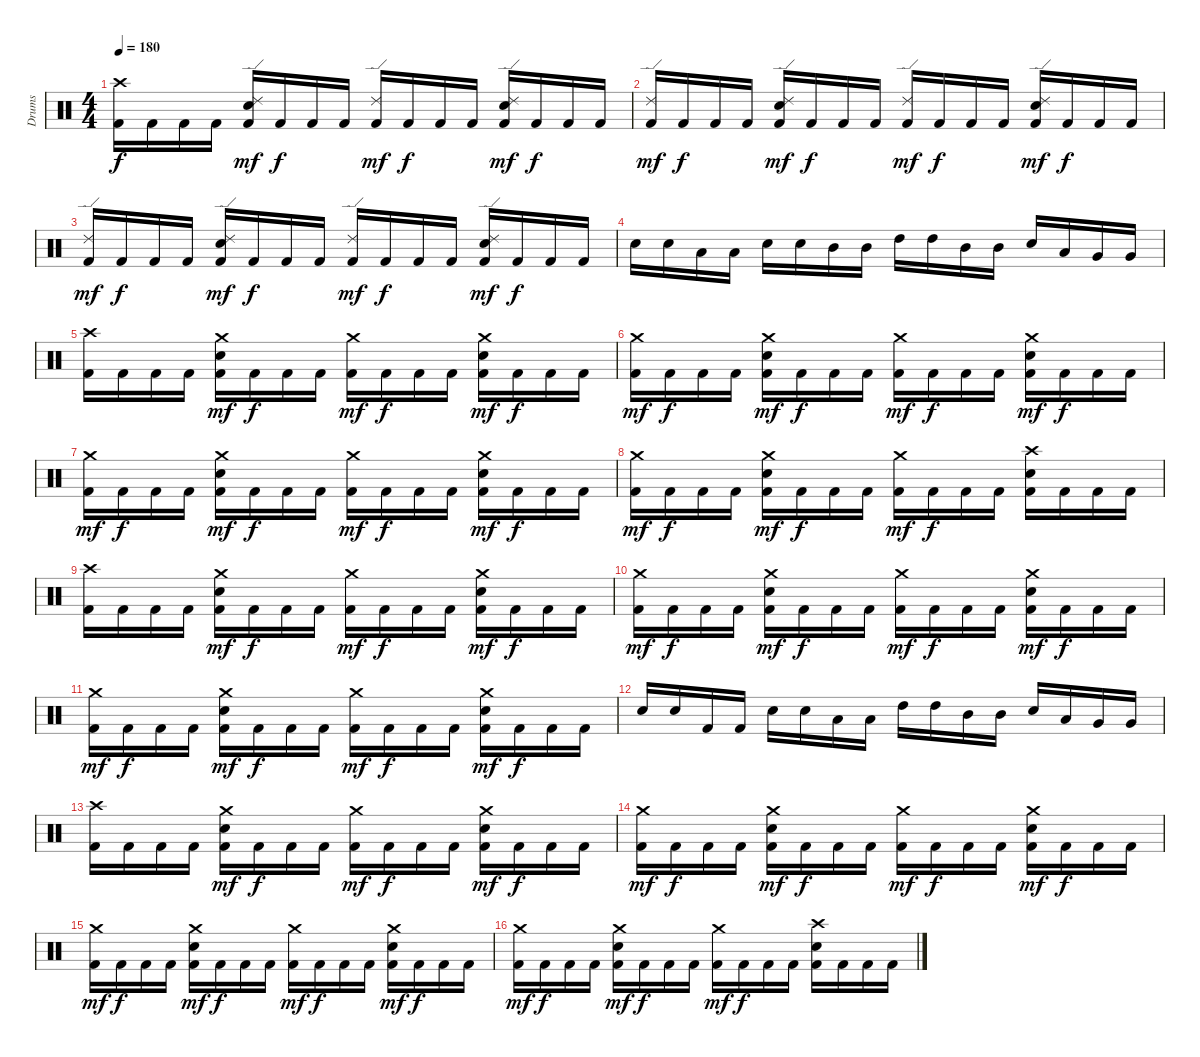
\track ("Drums" "Drums") {instrument percussion}
\staff {score}
\articulation defaults
\ts (4 4)
\tempo 180
\clef neutral
\ks c
("Crash high (hit)" "Kick (hit) 2").16{dy f} "Kick (hit) 2".16 "Kick (hit) 2".16 "Kick (hit) 2".16 ("Ride (edge) 2" "Snare (hit) 2" "Kick (hit) 2").16{dy mf} "Kick (hit) 2".16{dy f} "Kick (hit) 2".16 "Kick (hit) 2".16 ("Ride (edge) 2" "Kick (hit) 2").16{dy mf} "Kick (hit) 2".16{dy f} "Kick (hit) 2".16 "Kick (hit) 2".16 ("Ride (edge) 2" "Snare (hit) 2" "Kick (hit) 2").16{dy mf} "Kick (hit) 2".16{dy f} "Kick (hit) 2".16 "Kick (hit) 2".16 |
("Ride (edge) 2" "Kick (hit) 2").16{dy mf} "Kick (hit) 2".16{dy f} "Kick (hit) 2".16 "Kick (hit) 2".16 ("Ride (edge) 2" "Snare (hit) 2" "Kick (hit) 2").16{dy mf} "Kick (hit) 2".16{dy f} "Kick (hit) 2".16 "Kick (hit) 2".16 ("Ride (edge) 2" "Kick (hit) 2").16{dy mf} "Kick (hit) 2".16{dy f} "Kick (hit) 2".16 "Kick (hit) 2".16 ("Ride (edge) 2" "Snare (hit) 2" "Kick (hit) 2").16{dy mf} "Kick (hit) 2".16{dy f} "Kick (hit) 2".16 "Kick (hit) 2".16 |
("Ride (edge) 2" "Kick (hit) 2").16{dy mf} "Kick (hit) 2".16{dy f} "Kick (hit) 2".16 "Kick (hit) 2".16 ("Ride (edge) 2" "Snare (hit) 2" "Kick (hit) 2").16{dy mf} "Kick (hit) 2".16{dy f} "Kick (hit) 2".16 "Kick (hit) 2".16 ("Ride (edge) 2" "Kick (hit) 2").16{dy mf} "Kick (hit) 2".16{dy f} "Kick (hit) 2".16 "Kick (hit) 2".16 ("Ride (edge) 2" "Snare (hit) 2" "Kick (hit) 2").16{dy mf} "Kick (hit) 2".16{dy f} "Kick (hit) 2".16 "Kick (hit) 2".16 |
"Snare (hit) 2".16 "Snare (hit) 2".16 "Low Tom (hit)".16 "Low Tom (hit)".16 "Snare (hit) 2".16 "Snare (hit) 2".16 "Mid Tom (hit)".16 "Mid Tom (hit)".16 "High Tom (hit)".16 "High Tom (hit)".16 "Mid Tom (hit)".16 "Mid Tom (hit)".16 "Snare (hit) 2".16 "Low Tom (hit)".16 "Very Low Tom (hit)".16 "Very Low Tom (hit)".16 |
("Crash high (hit)" "Kick (hit) 2").16 "Kick (hit) 2".16 "Kick (hit) 2".16 "Kick (hit) 2".16 ("Crash medium (hit)" "Snare (hit) 2" "Kick (hit) 2").16{dy mf} "Kick (hit) 2".16{dy f} "Kick (hit) 2".16 "Kick (hit) 2".16 ("Crash medium (hit)" "Kick (hit) 2").16{dy mf} "Kick (hit) 2".16{dy f} "Kick (hit) 2".16 "Kick (hit) 2".16 ("Crash medium (hit)" "Snare (hit) 2" "Kick (hit) 2").16{dy mf} "Kick (hit) 2".16{dy f} "Kick (hit) 2".16 "Kick (hit) 2".16 |
("Crash medium (hit)" "Kick (hit) 2").16{dy mf} "Kick (hit) 2".16{dy f} "Kick (hit) 2".16 "Kick (hit) 2".16 ("Crash medium (hit)" "Snare (hit) 2" "Kick (hit) 2").16{dy mf} "Kick (hit) 2".16{dy f} "Kick (hit) 2".16 "Kick (hit) 2".16 ("Crash medium (hit)" "Kick (hit) 2").16{dy mf} "Kick (hit) 2".16{dy f} "Kick (hit) 2".16 "Kick (hit) 2".16 ("Crash medium (hit)" "Snare (hit) 2" "Kick (hit) 2").16{dy mf} "Kick (hit) 2".16{dy f} "Kick (hit) 2".16 "Kick (hit) 2".16 |
("Crash medium (hit)" "Kick (hit) 2").16{dy mf} "Kick (hit) 2".16{dy f} "Kick (hit) 2".16 "Kick (hit) 2".16 ("Crash medium (hit)" "Snare (hit) 2" "Kick (hit) 2").16{dy mf} "Kick (hit) 2".16{dy f} "Kick (hit) 2".16 "Kick (hit) 2".16 ("Crash medium (hit)" "Kick (hit) 2").16{dy mf} "Kick (hit) 2".16{dy f} "Kick (hit) 2".16 "Kick (hit) 2".16 ("Crash medium (hit)" "Snare (hit) 2" "Kick (hit) 2").16{dy mf} "Kick (hit) 2".16{dy f} "Kick (hit) 2".16 "Kick (hit) 2".16 |
("Crash medium (hit)" "Kick (hit) 2").16{dy mf} "Kick (hit) 2".16{dy f} "Kick (hit) 2".16 "Kick (hit) 2".16 ("Crash medium (hit)" "Snare (hit) 2" "Kick (hit) 2").16{dy mf} "Kick (hit) 2".16{dy f} "Kick (hit) 2".16 "Kick (hit) 2".16 ("Crash medium (hit)" "Kick (hit) 2").16{dy mf} "Kick (hit) 2".16{dy f} "Kick (hit) 2".16 "Kick (hit) 2".16 ("Crash high (hit)" "Snare (hit) 2" "Kick (hit) 2").16 "Kick (hit) 2".16 "Kick (hit) 2".16 "Kick (hit) 2".16 |
("Crash high (hit)" "Kick (hit) 2").16 "Kick (hit) 2".16 "Kick (hit) 2".16 "Kick (hit) 2".16 ("Crash medium (hit)" "Snare (hit) 2" "Kick (hit) 2").16{dy mf} "Kick (hit) 2".16{dy f} "Kick (hit) 2".16 "Kick (hit) 2".16 ("Crash medium (hit)" "Kick (hit) 2").16{dy mf} "Kick (hit) 2".16{dy f} "Kick (hit) 2".16 "Kick (hit) 2".16 ("Crash medium (hit)" "Snare (hit) 2" "Kick (hit) 2").16{dy mf} "Kick (hit) 2".16{dy f} "Kick (hit) 2".16 "Kick (hit) 2".16 |
("Crash medium (hit)" "Kick (hit) 2").16{dy mf} "Kick (hit) 2".16{dy f} "Kick (hit) 2".16 "Kick (hit) 2".16 ("Crash medium (hit)" "Snare (hit) 2" "Kick (hit) 2").16{dy mf} "Kick (hit) 2".16{dy f} "Kick (hit) 2".16 "Kick (hit) 2".16 ("Crash medium (hit)" "Kick (hit) 2").16{dy mf} "Kick (hit) 2".16{dy f} "Kick (hit) 2".16 "Kick (hit) 2".16 ("Crash medium (hit)" "Snare (hit) 2" "Kick (hit) 2").16{dy mf} "Kick (hit) 2".16{dy f} "Kick (hit) 2".16 "Kick (hit) 2".16 |
("Crash medium (hit)" "Kick (hit) 2").16{dy mf} "Kick (hit) 2".16{dy f} "Kick (hit) 2".16 "Kick (hit) 2".16 ("Crash medium (hit)" "Snare (hit) 2" "Kick (hit) 2").16{dy mf} "Kick (hit) 2".16{dy f} "Kick (hit) 2".16 "Kick (hit) 2".16 ("Crash medium (hit)" "Kick (hit) 2").16{dy mf} "Kick (hit) 2".16{dy f} "Kick (hit) 2".16 "Kick (hit) 2".16 ("Crash medium (hit)" "Snare (hit) 2" "Kick (hit) 2").16{dy mf} "Kick (hit) 2".16{dy f} "Kick (hit) 2".16 "Kick (hit) 2".16 |
"Snare (hit) 2".16 "Snare (hit) 2".16 "Kick (hit) 2".16 "Kick (hit) 2".16 "Snare (hit) 2".16 "Snare (hit) 2".16 "Low Tom (hit)".16 "Low Tom (hit)".16 "High Tom (hit)".16 "High Tom (hit)".16 "Mid Tom (hit)".16 "Mid Tom (hit)".16 "Snare (hit) 2".16 "Low Tom (hit)".16 "Very Low Tom (hit)".16 "Very Low Tom (hit)".16 |
("Crash high (hit)" "Kick (hit) 2").16 "Kick (hit) 2".16 "Kick (hit) 2".16 "Kick (hit) 2".16 ("Crash medium (hit)" "Snare (hit) 2" "Kick (hit) 2").16{dy mf} "Kick (hit) 2".16{dy f} "Kick (hit) 2".16 "Kick (hit) 2".16 ("Crash medium (hit)" "Kick (hit) 2").16{dy mf} "Kick (hit) 2".16{dy f} "Kick (hit) 2".16 "Kick (hit) 2".16 ("Crash medium (hit)" "Snare (hit) 2" "Kick (hit) 2").16{dy mf} "Kick (hit) 2".16{dy f} "Kick (hit) 2".16 "Kick (hit) 2".16 |
("Crash medium (hit)" "Kick (hit) 2").16{dy mf} "Kick (hit) 2".16{dy f} "Kick (hit) 2".16 "Kick (hit) 2".16 ("Crash medium (hit)" "Snare (hit) 2" "Kick (hit) 2").16{dy mf} "Kick (hit) 2".16{dy f} "Kick (hit) 2".16 "Kick (hit) 2".16 ("Crash medium (hit)" "Kick (hit) 2").16{dy mf} "Kick (hit) 2".16{dy f} "Kick (hit) 2".16 "Kick (hit) 2".16 ("Crash medium (hit)" "Snare (hit) 2" "Kick (hit) 2").16{dy mf} "Kick (hit) 2".16{dy f} "Kick (hit) 2".16 "Kick (hit) 2".16 |
("Crash medium (hit)" "Kick (hit) 2").16{dy mf} "Kick (hit) 2".16{dy f} "Kick (hit) 2".16 "Kick (hit) 2".16 ("Crash medium (hit)" "Snare (hit) 2" "Kick (hit) 2").16{dy mf} "Kick (hit) 2".16{dy f} "Kick (hit) 2".16 "Kick (hit) 2".16 ("Crash medium (hit)" "Kick (hit) 2").16{dy mf} "Kick (hit) 2".16{dy f} "Kick (hit) 2".16 "Kick (hit) 2".16 ("Crash medium (hit)" "Snare (hit) 2" "Kick (hit) 2").16{dy mf} "Kick (hit) 2".16{dy f} "Kick (hit) 2".16 "Kick (hit) 2".16 |
("Crash medium (hit)" "Kick (hit) 2").16{dy mf} "Kick (hit) 2".16{dy f} "Kick (hit) 2".16 "Kick (hit) 2".16 ("Crash medium (hit)" "Snare (hit) 2" "Kick (hit) 2").16{dy mf} "Kick (hit) 2".16{dy f} "Kick (hit) 2".16 "Kick (hit) 2".16 ("Crash medium (hit)" "Kick (hit) 2").16{dy mf} "Kick (hit) 2".16{dy f} "Kick (hit) 2".16 "Kick (hit) 2".16 ("Crash high (hit)" "Snare (hit) 2" "Kick (hit) 2").16 "Kick (hit) 2".16 "Kick (hit) 2".16 "Kick (hit) 2".16
